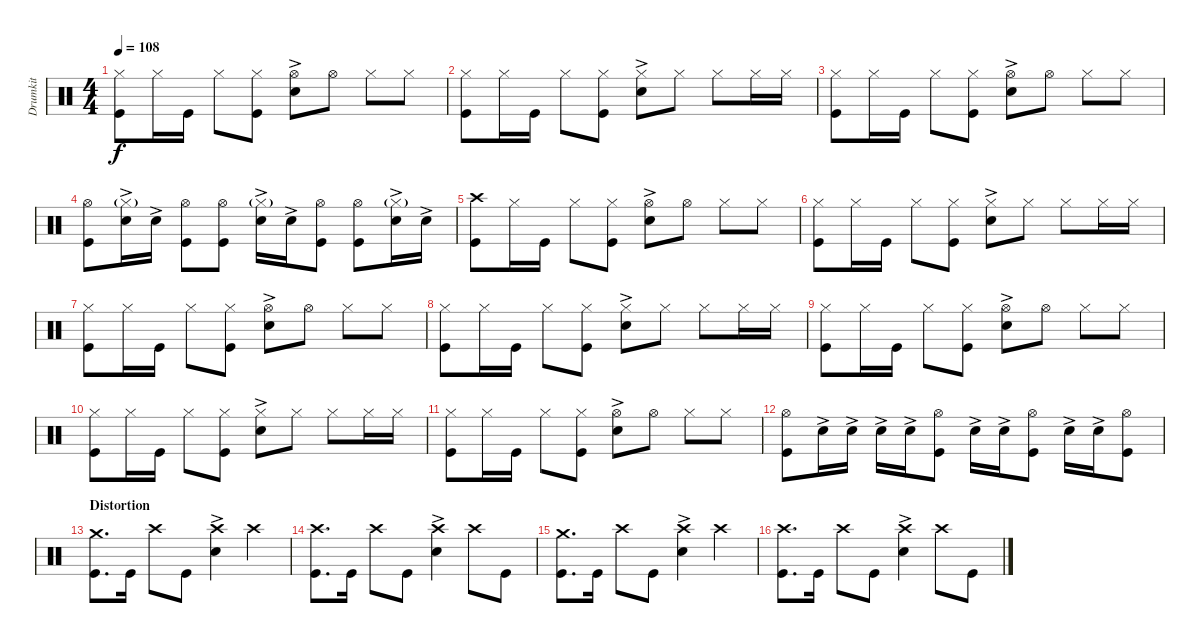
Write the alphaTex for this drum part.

\track ("Drumkit" "Drumkit") {instrument percussion}
\staff {score}
\articulation defaults
\ts (4 4)
\tempo 108
\clef neutral
\ks c
("Kick (hit)" "Hi-Hat (closed)").8{dy f} "Hi-Hat (closed)".16 "Kick (hit)".16 "Hi-Hat (closed)".8 ("Kick (hit)" "Hi-Hat (closed)").8 ("Snare (hit) 2"{ac} "Hi-Hat (open)").8 "Hi-Hat (open)".8 "Hi-Hat (closed)".8 "Hi-Hat (closed)".8 |
("Hi-Hat (closed)" "Kick (hit)").8 "Hi-Hat (closed)".16 "Kick (hit)".16 "Hi-Hat (closed)".8 ("Kick (hit)" "Hi-Hat (closed)").8 ("Hi-Hat (closed)" "Snare (hit) 2"{ac}).8 "Hi-Hat (closed)".8 "Hi-Hat (closed)".8 "Hi-Hat (closed)".16 "Hi-Hat (closed)".16 |
("Kick (hit)" "Hi-Hat (closed)").8 "Hi-Hat (closed)".16 "Kick (hit)".16 "Hi-Hat (closed)".8 ("Kick (hit)" "Hi-Hat (closed)").8 ("Hi-Hat (open)" "Snare (hit) 2"{ac}).8 "Hi-Hat (open)".8 "Hi-Hat (closed)".8 "Hi-Hat (closed)".8 |
("Kick (hit)" "Hi-Hat (open)").8 ("Snare (hit) 2"{ac} "Hi-Hat (closed)"{g}).16 "Snare (hit) 2"{ac}.16 ("Kick (hit)" "Hi-Hat (open)").8 ("Kick (hit)" "Hi-Hat (open)").8 ("Snare (hit) 2"{ac} "Hi-Hat (closed)"{g}).16 "Snare (hit) 2"{ac}.16 ("Kick (hit)" "Hi-Hat (open)").8 ("Kick (hit)" "Hi-Hat (open)").8 ("Snare (hit) 2"{ac} "Hi-Hat (closed)"{g}).16 "Snare (hit) 2"{ac}.16 |
("Kick (hit)" "Crash high (hit)").8 "Hi-Hat (closed)".16 "Kick (hit)".16 "Hi-Hat (closed)".8 ("Kick (hit)" "Hi-Hat (closed)").8 ("Snare (hit) 2"{ac} "Hi-Hat (open)").8 "Hi-Hat (open)".8 "Hi-Hat (closed)".8 "Hi-Hat (closed)".8 |
("Hi-Hat (closed)" "Kick (hit)").8 "Hi-Hat (closed)".16 "Kick (hit)".16 "Hi-Hat (closed)".8 ("Kick (hit)" "Hi-Hat (closed)").8 ("Hi-Hat (closed)" "Snare (hit) 2"{ac}).8 "Hi-Hat (closed)".8 "Hi-Hat (closed)".8 "Hi-Hat (closed)".16 "Hi-Hat (closed)".16 |
("Kick (hit)" "Hi-Hat (closed)").8 "Hi-Hat (closed)".16 "Kick (hit)".16 "Hi-Hat (closed)".8 ("Kick (hit)" "Hi-Hat (closed)").8 ("Hi-Hat (open)" "Snare (hit) 2"{ac}).8 "Hi-Hat (open)".8 "Hi-Hat (closed)".8 "Hi-Hat (closed)".8 |
("Hi-Hat (closed)" "Kick (hit)").8 "Hi-Hat (closed)".16 "Kick (hit)".16 "Hi-Hat (closed)".8 ("Kick (hit)" "Hi-Hat (closed)").8 ("Hi-Hat (closed)" "Snare (hit) 2"{ac}).8 "Hi-Hat (closed)".8 "Hi-Hat (closed)".8 "Hi-Hat (closed)".16 "Hi-Hat (closed)".16 |
("Kick (hit)" "Hi-Hat (closed)").8 "Hi-Hat (closed)".16 "Kick (hit)".16 "Hi-Hat (closed)".8 ("Kick (hit)" "Hi-Hat (closed)").8 ("Snare (hit) 2"{ac} "Hi-Hat (open)").8 "Hi-Hat (open)".8 "Hi-Hat (closed)".8 "Hi-Hat (closed)".8 |
("Hi-Hat (closed)" "Kick (hit)").8 "Hi-Hat (closed)".16 "Kick (hit)".16 "Hi-Hat (closed)".8 ("Kick (hit)" "Hi-Hat (closed)").8 ("Hi-Hat (closed)" "Snare (hit) 2"{ac}).8 "Hi-Hat (closed)".8 "Hi-Hat (closed)".8 "Hi-Hat (closed)".16 "Hi-Hat (closed)".16 |
("Kick (hit)" "Hi-Hat (closed)").8 "Hi-Hat (closed)".16 "Kick (hit)".16 "Hi-Hat (closed)".8 ("Kick (hit)" "Hi-Hat (closed)").8 ("Hi-Hat (open)" "Snare (hit) 2"{ac}).8 "Hi-Hat (open)".8 "Hi-Hat (closed)".8 "Hi-Hat (closed)".8 |
("Kick (hit)" "Hi-Hat (open)").8 "Snare (hit) 2"{ac}.16 "Snare (hit) 2"{ac}.16 "Snare (hit) 2"{ac}.16 "Snare (hit) 2"{ac}.16 ("Kick (hit)" "Hi-Hat (open)").8 "Snare (hit) 2"{ac}.16 "Snare (hit) 2"{ac}.16 ("Kick (hit)" "Hi-Hat (open)").8 "Snare (hit) 2"{ac}.16 "Snare (hit) 2"{ac}.16 ("Kick (hit)" "Hi-Hat (open)").8 |
\section ("" "Distortion")
("Kick (hit)" "Crash medium (hit)").8{d} "Kick (hit)".16 "Crash high (hit)".8 "Kick (hit)".8 ("Snare (hit) 2"{ac} "Crash high (hit)").4 "Crash high (hit)".4 |
("Kick (hit)" "Crash high (hit)").8{d} "Kick (hit)".16 "Crash high (hit)".8 "Kick (hit)".8 ("Snare (hit) 2"{ac} "Crash high (hit)").4 "Crash high (hit)".8 "Kick (hit)".8 |
("Kick (hit)" "Crash medium (hit)").8{d} "Kick (hit)".16 "Crash high (hit)".8 "Kick (hit)".8 ("Snare (hit) 2"{ac} "Crash high (hit)").4 "Crash high (hit)".4 |
("Kick (hit)" "Crash high (hit)").8{d} "Kick (hit)".16 "Crash high (hit)".8 "Kick (hit)".8 ("Snare (hit) 2"{ac} "Crash high (hit)").4 "Crash high (hit)".8 "Kick (hit)".8
